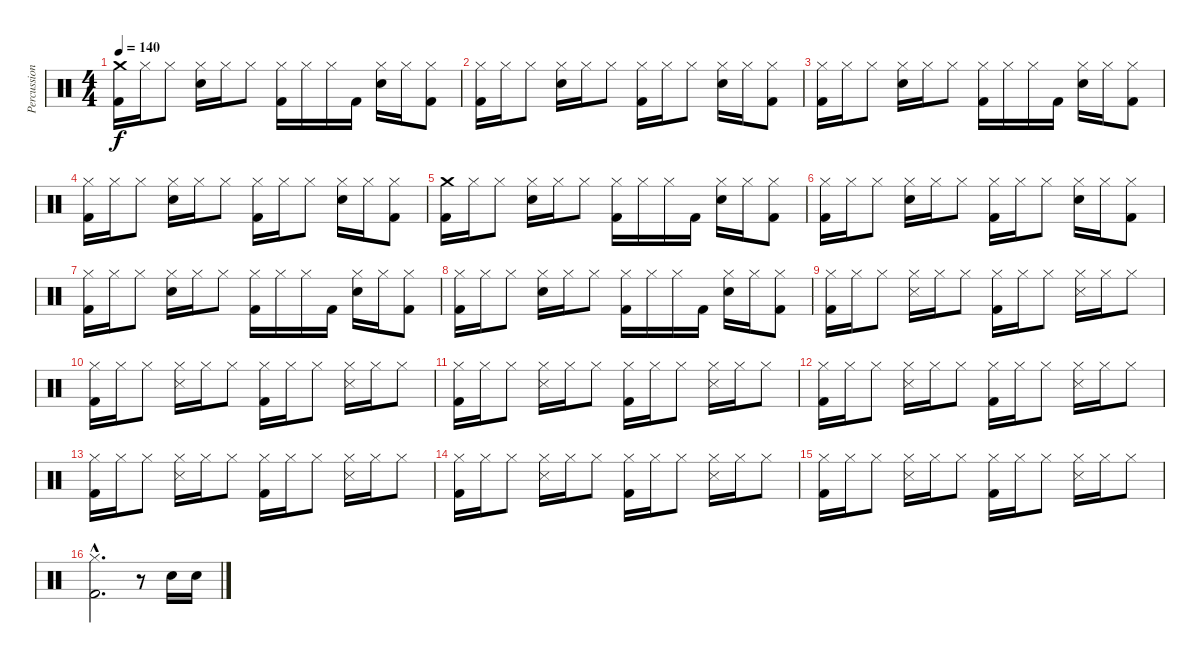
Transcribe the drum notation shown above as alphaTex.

\track ("Percussion" "Percussion") {instrument percussion}
\staff {score}
\articulation defaults
\ts (4 4)
\tempo 140
\clef neutral
\ks c
("Crash medium (hit)" "Kick (hit) 2").16{dy f} "Hi-Hat (closed)".16 "Hi-Hat (closed)".8 ("Hi-Hat (closed)" "Electric Snare (hit)").16 "Hi-Hat (closed)".16 "Hi-Hat (closed)".8 ("Hi-Hat (closed)" "Kick (hit) 2").16 "Hi-Hat (closed)".16 "Hi-Hat (closed)".16 "Kick (hit) 2".16 ("Hi-Hat (closed)" "Electric Snare (hit)").16 "Hi-Hat (closed)".16 ("Hi-Hat (closed)" "Kick (hit) 2").8 |
("Hi-Hat (closed)" "Kick (hit) 2").16 "Hi-Hat (closed)".16 "Hi-Hat (closed)".8 ("Hi-Hat (closed)" "Electric Snare (hit)").16 "Hi-Hat (closed)".16 "Hi-Hat (closed)".8 ("Hi-Hat (closed)" "Kick (hit) 2").16 "Hi-Hat (closed)".16 "Hi-Hat (closed)".8 ("Hi-Hat (closed)" "Electric Snare (hit)").16 "Hi-Hat (closed)".16 ("Hi-Hat (closed)" "Kick (hit) 2").8 |
("Hi-Hat (closed)" "Kick (hit) 2").16 "Hi-Hat (closed)".16 "Hi-Hat (closed)".8 ("Hi-Hat (closed)" "Electric Snare (hit)").16 "Hi-Hat (closed)".16 "Hi-Hat (closed)".8 ("Hi-Hat (closed)" "Kick (hit) 2").16 "Hi-Hat (closed)".16 "Hi-Hat (closed)".16 "Kick (hit) 2".16 ("Hi-Hat (closed)" "Electric Snare (hit)").16 "Hi-Hat (closed)".16 ("Hi-Hat (closed)" "Kick (hit) 2").8 |
("Hi-Hat (closed)" "Kick (hit) 2").16 "Hi-Hat (closed)".16 "Hi-Hat (closed)".8 ("Hi-Hat (closed)" "Electric Snare (hit)").16 "Hi-Hat (closed)".16 "Hi-Hat (closed)".8 ("Hi-Hat (closed)" "Kick (hit) 2").16 "Hi-Hat (closed)".16 "Hi-Hat (closed)".8 ("Hi-Hat (closed)" "Electric Snare (hit)").16 "Hi-Hat (closed)".16 ("Hi-Hat (closed)" "Kick (hit) 2").8 |
("Crash medium (hit)" "Kick (hit) 2").16 "Hi-Hat (closed)".16 "Hi-Hat (closed)".8 ("Hi-Hat (closed)" "Electric Snare (hit)").16 "Hi-Hat (closed)".16 "Hi-Hat (closed)".8 ("Hi-Hat (closed)" "Kick (hit) 2").16 "Hi-Hat (closed)".16 "Hi-Hat (closed)".16 "Kick (hit) 2".16 ("Hi-Hat (closed)" "Electric Snare (hit)").16 "Hi-Hat (closed)".16 ("Hi-Hat (closed)" "Kick (hit) 2").8 |
("Hi-Hat (closed)" "Kick (hit) 2").16 "Hi-Hat (closed)".16 "Hi-Hat (closed)".8 ("Hi-Hat (closed)" "Electric Snare (hit)").16 "Hi-Hat (closed)".16 "Hi-Hat (closed)".8 ("Hi-Hat (closed)" "Kick (hit) 2").16 "Hi-Hat (closed)".16 "Hi-Hat (closed)".8 ("Hi-Hat (closed)" "Electric Snare (hit)").16 "Hi-Hat (closed)".16 ("Hi-Hat (closed)" "Kick (hit) 2").8 |
("Hi-Hat (closed)" "Kick (hit) 2").16 "Hi-Hat (closed)".16 "Hi-Hat (closed)".8 ("Hi-Hat (closed)" "Electric Snare (hit)").16 "Hi-Hat (closed)".16 "Hi-Hat (closed)".8 ("Hi-Hat (closed)" "Kick (hit) 2").16 "Hi-Hat (closed)".16 "Hi-Hat (closed)".16 "Kick (hit) 2".16 ("Hi-Hat (closed)" "Electric Snare (hit)").16 "Hi-Hat (closed)".16 ("Hi-Hat (closed)" "Kick (hit) 2").8 |
("Hi-Hat (closed)" "Kick (hit) 2").16 "Hi-Hat (closed)".16 "Hi-Hat (closed)".8 ("Hi-Hat (closed)" "Electric Snare (hit)").16 "Hi-Hat (closed)".16 "Hi-Hat (closed)".8 ("Hi-Hat (closed)" "Kick (hit) 2").16 "Hi-Hat (closed)".16 "Hi-Hat (closed)".16 "Kick (hit) 2".16 ("Hi-Hat (closed)" "Electric Snare (hit)").16 "Hi-Hat (closed)".16 ("Hi-Hat (closed)" "Kick (hit) 2").8 |
("Hi-Hat (closed)" "Kick (hit) 2").16 "Hi-Hat (closed)".16 "Hi-Hat (closed)".8 ("Hi-Hat (closed)" "Snare (side stick) 3").16 "Hi-Hat (closed)".16 "Hi-Hat (closed)".8 ("Hi-Hat (closed)" "Kick (hit) 2").16 "Hi-Hat (closed)".16 "Hi-Hat (closed)".8 ("Hi-Hat (closed)" "Snare (side stick) 3").16 "Hi-Hat (closed)".16 "Hi-Hat (closed)".8 |
("Hi-Hat (closed)" "Kick (hit) 2").16 "Hi-Hat (closed)".16 "Hi-Hat (closed)".8 ("Hi-Hat (closed)" "Snare (side stick) 3").16 "Hi-Hat (closed)".16 "Hi-Hat (closed)".8 ("Hi-Hat (closed)" "Kick (hit) 2").16 "Hi-Hat (closed)".16 "Hi-Hat (closed)".8 ("Hi-Hat (closed)" "Snare (side stick) 3").16 "Hi-Hat (closed)".16 "Hi-Hat (closed)".8 |
("Hi-Hat (closed)" "Kick (hit) 2").16 "Hi-Hat (closed)".16 "Hi-Hat (closed)".8 ("Hi-Hat (closed)" "Snare (side stick) 3").16 "Hi-Hat (closed)".16 "Hi-Hat (closed)".8 ("Hi-Hat (closed)" "Kick (hit) 2").16 "Hi-Hat (closed)".16 "Hi-Hat (closed)".8 ("Hi-Hat (closed)" "Snare (side stick) 3").16 "Hi-Hat (closed)".16 "Hi-Hat (closed)".8 |
("Hi-Hat (closed)" "Kick (hit) 2").16 "Hi-Hat (closed)".16 "Hi-Hat (closed)".8 ("Hi-Hat (closed)" "Snare (side stick) 3").16 "Hi-Hat (closed)".16 "Hi-Hat (closed)".8 ("Hi-Hat (closed)" "Kick (hit) 2").16 "Hi-Hat (closed)".16 "Hi-Hat (closed)".8 ("Hi-Hat (closed)" "Snare (side stick) 3").16 "Hi-Hat (closed)".16 "Hi-Hat (closed)".8 |
("Hi-Hat (closed)" "Kick (hit) 2").16 "Hi-Hat (closed)".16 "Hi-Hat (closed)".8 ("Hi-Hat (closed)" "Snare (side stick) 3").16 "Hi-Hat (closed)".16 "Hi-Hat (closed)".8 ("Hi-Hat (closed)" "Kick (hit) 2").16 "Hi-Hat (closed)".16 "Hi-Hat (closed)".8 ("Hi-Hat (closed)" "Snare (side stick) 3").16 "Hi-Hat (closed)".16 "Hi-Hat (closed)".8 |
("Hi-Hat (closed)" "Kick (hit) 2").16 "Hi-Hat (closed)".16 "Hi-Hat (closed)".8 ("Hi-Hat (closed)" "Snare (side stick) 3").16 "Hi-Hat (closed)".16 "Hi-Hat (closed)".8 ("Hi-Hat (closed)" "Kick (hit) 2").16 "Hi-Hat (closed)".16 "Hi-Hat (closed)".8 ("Hi-Hat (closed)" "Snare (side stick) 3").16 "Hi-Hat (closed)".16 "Hi-Hat (closed)".8 |
("Hi-Hat (closed)" "Kick (hit) 2").16 "Hi-Hat (closed)".16 "Hi-Hat (closed)".8 ("Hi-Hat (closed)" "Snare (side stick) 3").16 "Hi-Hat (closed)".16 "Hi-Hat (closed)".8 ("Hi-Hat (closed)" "Kick (hit) 2").16 "Hi-Hat (closed)".16 "Hi-Hat (closed)".8 ("Hi-Hat (closed)" "Snare (side stick) 3").16 "Hi-Hat (closed)".16 "Hi-Hat (closed)".8 |
("Hi-Hat (closed)"{hac} "Kick (hit) 2"{hac}).2{d} r.8 "Snare (hit) 2".16 "Snare (hit) 2".16
